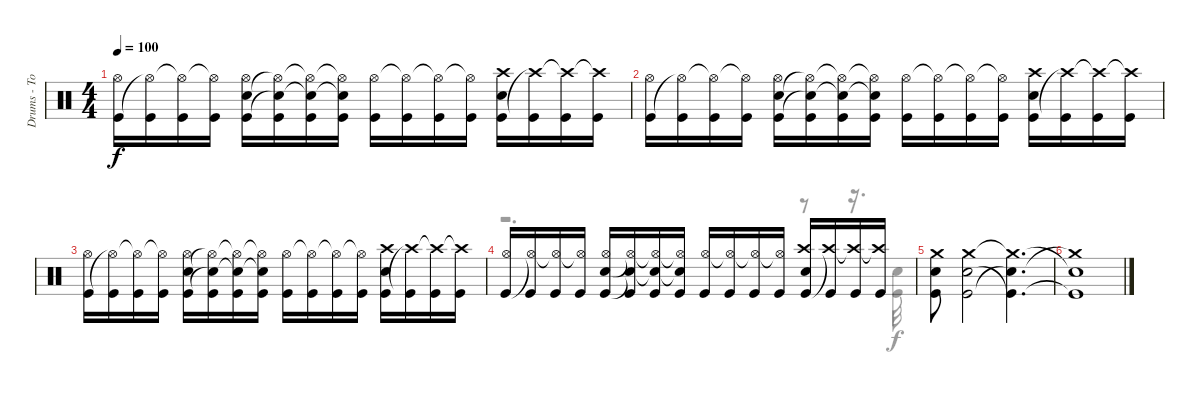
\track ("Drums - Tommy" "Drums - To") {instrument percussion}
\staff {score}
\articulation defaults
\voice
\ts (4 4)
\tempo 100
\clef neutral
\ks c
("Hi-Hat (open)" "Kick (hit)").16{dy f} ("Kick (hit)" "Hi-Hat (open)"{t}).16 ("Kick (hit)" "Hi-Hat (open)"{t}).16 ("Kick (hit)" "Hi-Hat (open)"{t}).16 ("Hi-Hat (open)" "Snare (hit) 2" "Kick (hit)").16 ("Kick (hit)" "Hi-Hat (open)"{t} "Snare (hit) 2"{t}).16 ("Kick (hit)" "Hi-Hat (open)"{t} "Snare (hit) 2"{t}).16 ("Kick (hit)" "Hi-Hat (open)"{t} "Snare (hit) 2"{t}).16 ("Kick (hit)" "Hi-Hat (open)").16 ("Kick (hit)" "Hi-Hat (open)"{t}).16 ("Kick (hit)" "Hi-Hat (open)"{t}).16 ("Kick (hit)" "Hi-Hat (open)"{t}).16 ("Snare (hit) 2" "Kick (hit)" "Crash high (hit)").16 ("Kick (hit)" "Crash high (hit)"{t}).16 ("Kick (hit)" "Crash high (hit)"{t}).16 ("Kick (hit)" "Crash high (hit)"{t}).16 |
("Hi-Hat (open)" "Kick (hit)").16 ("Kick (hit)" "Hi-Hat (open)"{t}).16 ("Kick (hit)" "Hi-Hat (open)"{t}).16 ("Kick (hit)" "Hi-Hat (open)"{t}).16 ("Hi-Hat (open)" "Snare (hit) 2" "Kick (hit)").16 ("Kick (hit)" "Hi-Hat (open)"{t} "Snare (hit) 2"{t}).16 ("Kick (hit)" "Hi-Hat (open)"{t} "Snare (hit) 2"{t}).16 ("Kick (hit)" "Hi-Hat (open)"{t} "Snare (hit) 2"{t}).16 ("Kick (hit)" "Hi-Hat (open)").16 ("Kick (hit)" "Hi-Hat (open)"{t}).16 ("Kick (hit)" "Hi-Hat (open)"{t}).16 ("Kick (hit)" "Hi-Hat (open)"{t}).16 ("Snare (hit) 2" "Kick (hit)" "Crash high (hit)").16 ("Kick (hit)" "Crash high (hit)"{t}).16 ("Kick (hit)" "Crash high (hit)"{t}).16 ("Kick (hit)" "Crash high (hit)"{t}).16 |
("Hi-Hat (open)" "Kick (hit)").16 ("Kick (hit)" "Hi-Hat (open)"{t}).16 ("Kick (hit)" "Hi-Hat (open)"{t}).16 ("Kick (hit)" "Hi-Hat (open)"{t}).16 ("Hi-Hat (open)" "Snare (hit) 2" "Kick (hit)").16 ("Kick (hit)" "Hi-Hat (open)"{t} "Snare (hit) 2"{t}).16 ("Kick (hit)" "Hi-Hat (open)"{t} "Snare (hit) 2"{t}).16 ("Kick (hit)" "Hi-Hat (open)"{t} "Snare (hit) 2"{t}).16 ("Kick (hit)" "Hi-Hat (open)").16 ("Kick (hit)" "Hi-Hat (open)"{t}).16 ("Kick (hit)" "Hi-Hat (open)"{t}).16 ("Kick (hit)" "Hi-Hat (open)"{t}).16 ("Snare (hit) 2" "Kick (hit)" "Crash high (hit)").16 ("Kick (hit)" "Crash high (hit)"{t}).16 ("Kick (hit)" "Crash high (hit)"{t}).16 ("Kick (hit)" "Crash high (hit)"{t}).16 |
("Hi-Hat (open)" "Kick (hit)").16 ("Kick (hit)" "Hi-Hat (open)"{t}).16 ("Kick (hit)" "Hi-Hat (open)"{t}).16 ("Kick (hit)" "Hi-Hat (open)"{t}).16 ("Hi-Hat (open)" "Snare (hit) 2" "Kick (hit)").16 ("Kick (hit)" "Hi-Hat (open)"{t} "Snare (hit) 2"{t}).16 ("Kick (hit)" "Hi-Hat (open)"{t} "Snare (hit) 2"{t}).16 ("Kick (hit)" "Hi-Hat (open)"{t} "Snare (hit) 2"{t}).16 ("Kick (hit)" "Hi-Hat (open)").16 ("Kick (hit)" "Hi-Hat (open)"{t}).16 ("Kick (hit)" "Hi-Hat (open)"{t}).16 ("Kick (hit)" "Hi-Hat (open)"{t}).16 ("Snare (hit) 2" "Kick (hit)" "Crash high (hit)").16 ("Kick (hit)" "Crash high (hit)"{t}).16 ("Kick (hit)" "Crash high (hit)"{t}).16 ("Kick (hit)" "Crash high (hit)"{t}).16 |
("Kick (hit)" "Snare (hit) 2" "Crash medium (hit)").8 ("Kick (hit)" "Snare (hit) 2" "Crash medium (hit)").2 ("Snare (hit) 2"{t} "Kick (hit)"{t} "Crash medium (hit)"{t}).4{d} |
("Crash medium (hit)"{t} "Kick (hit)"{t} "Snare (hit) 2"{t}).1 |
\voice
\clef neutral
\ottava regular
\simile none
\ks c
|
|
|
r.2{d} r.8 r.16{d} ("Kick (hit)" "Snare (hit) 2").32 |
|
|
